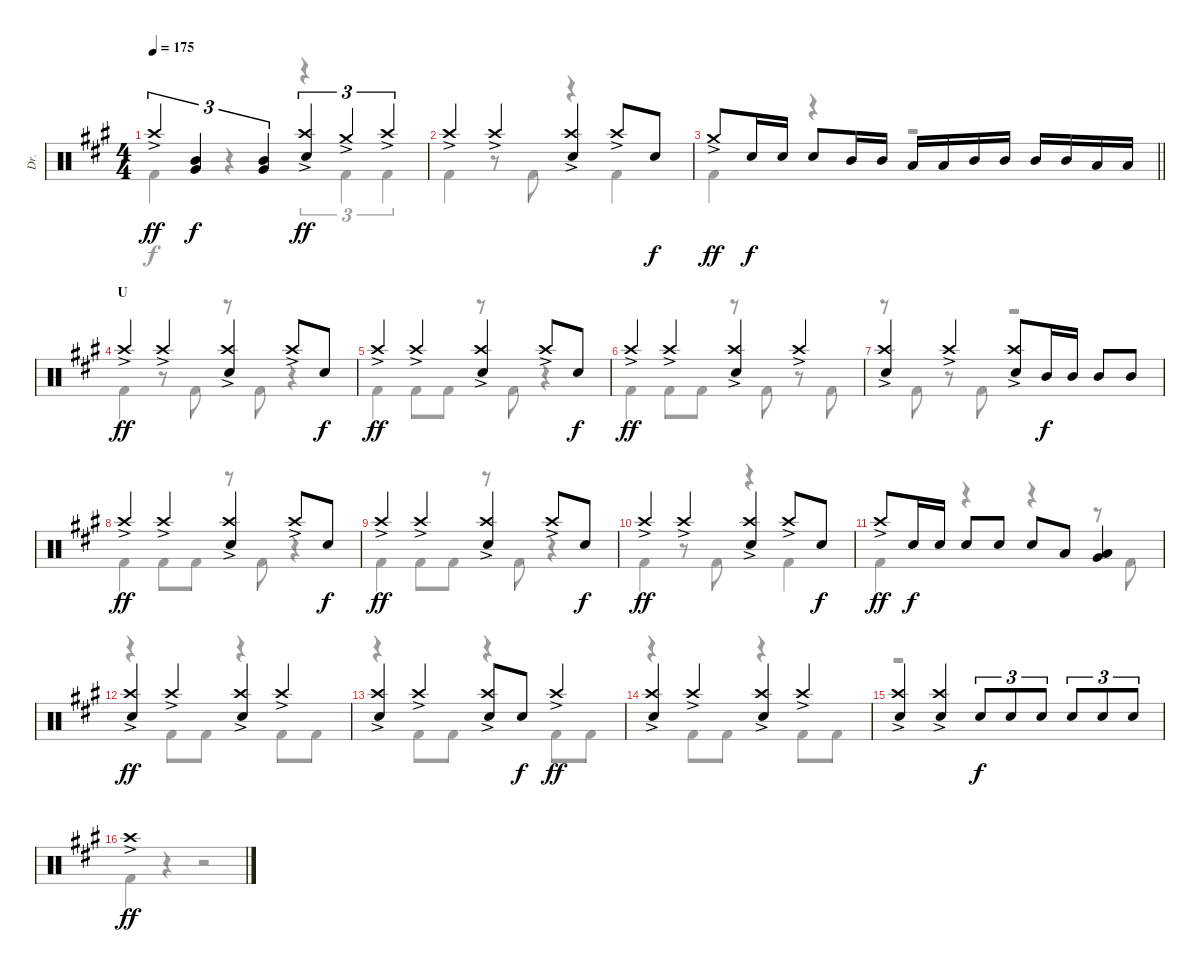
\track ("Dr." "Dr.") {instrument percussion}
\staff {score}
\articulation defaults
\voice
\ts (4 4)
\tempo 175
\clef neutral
\ks f#minor "Crash high (hit)"{ac}.4{tu (3 2) dy ff}
("Mid Tom (hit)" "Very Low Tom (hit)").4{tu (3 2) dy f} ("Mid Tom (hit)" "Very Low Tom (hit)").4{tu (3 2)} ("Crash high (hit)"{ac} "Electric Snare (hit)").4{tu (3 2) dy ff} "Crash medium (hit)"{ac}.4{tu (3 2)} "Crash high (hit)"{ac}.4{tu (3 2)} |
"Crash high (hit)"{ac}.4 "Crash high (hit)"{ac}.4 ("Crash high (hit)"{ac} "Electric Snare (hit)").4 "Crash high (hit)"{ac}.8 "Electric Snare (hit)".8{dy f} |
\barLineRight lightlight "Crash medium (hit)"{ac}.8{dy ff} "Electric Snare (hit)".16{dy f} "Electric Snare (hit)".16 "Electric Snare (hit)".8 "Mid Tom (hit)".16 "Mid Tom (hit)".16 "Low Tom (hit)".16 "Low Tom (hit)".16 "Mid Tom (hit)".16 "Mid Tom (hit)".16 "Mid Tom (hit)".16 "Mid Tom (hit)".16 "Low Tom (hit)".16 "Low Tom (hit)".16
|
\section ("" "U")
"Crash high (hit)"{ac}.4{dy ff} "Crash high (hit)"{ac}.4 ("Crash high (hit)"{ac} "Electric Snare (hit)").4 "Crash high (hit)"{ac}.8 "Electric Snare (hit)".8{dy f} |
"Crash high (hit)"{ac}.4{dy ff} "Crash high (hit)"{ac}.4 ("Crash high (hit)"{ac} "Electric Snare (hit)").4 "Crash high (hit)"{ac}.8 "Electric Snare (hit)".8{dy f} |
"Crash high (hit)"{ac}.4{dy ff} "Crash high (hit)"{ac}.4 ("Crash high (hit)"{ac} "Electric Snare (hit)").4 "Crash high (hit)"{ac}.4 |
("Crash high (hit)"{ac} "Electric Snare (hit)").4 "Crash high (hit)"{ac}.4 ("Crash high (hit)"{ac} "Electric Snare (hit)").8 "Mid Tom (hit)".16{dy f} "Mid Tom (hit)".16 "Mid Tom (hit)".8 "Mid Tom (hit)".8 |
"Crash high (hit)"{ac}.4{dy ff} "Crash high (hit)"{ac}.4 ("Crash high (hit)"{ac} "Electric Snare (hit)").4 "Crash high (hit)"{ac}.8 "Electric Snare (hit)".8{dy f} |
"Crash high (hit)"{ac}.4{dy ff} "Crash high (hit)"{ac}.4 ("Crash high (hit)"{ac} "Electric Snare (hit)").4 "Crash high (hit)"{ac}.8 "Electric Snare (hit)".8{dy f} |
"Crash high (hit)"{ac}.4{dy ff} "Crash high (hit)"{ac}.4 ("Crash high (hit)"{ac} "Electric Snare (hit)").4 "Crash high (hit)"{ac}.8 "Electric Snare (hit)".8{dy f} |
"Crash high (hit)"{ac}.8{dy ff} "Electric Snare (hit)".16{dy f} "Electric Snare (hit)".16 "Electric Snare (hit)".8 "Electric Snare (hit)".8 "Electric Snare (hit)".8 "Low Tom (hit)".8 ("Low Tom (hit)" "Very Low Tom (hit)").4 |
("Crash high (hit)"{ac} "Electric Snare (hit)").4{dy ff} "Crash high (hit)"{ac}.4 ("Crash high (hit)"{ac} "Electric Snare (hit)").4 "Crash high (hit)"{ac}.4 |
("Crash high (hit)"{ac} "Electric Snare (hit)").4 "Crash high (hit)"{ac}.4 ("Crash high (hit)"{ac} "Electric Snare (hit)").8 "Electric Snare (hit)".8{dy f} "Crash high (hit)"{ac}.4{dy ff} |
("Crash high (hit)"{ac} "Electric Snare (hit)").4 "Crash high (hit)"{ac}.4 ("Crash high (hit)"{ac} "Electric Snare (hit)").4 "Crash high (hit)"{ac}.4 |
("Crash high (hit)"{ac} "Electric Snare (hit)").4 ("Crash high (hit)"{ac} "Electric Snare (hit)").4 "Electric Snare (hit)".8{tu (3 2) dy f} "Electric Snare (hit)".8{tu (3 2)} "Electric Snare (hit)".8{tu (3 2)} "Electric Snare (hit)".8{tu (3 2)} "Electric Snare (hit)".8{tu (3 2)} "Electric Snare (hit)".8{tu (3 2)} |
"Crash high (hit)"{ac}.1{dy ff}
\voice
\clef neutral
\ottava regular
\simile none
\ks f#minor "Kick (hit) 2".4{dy f}
r.4 r.4{tu (3 2)} "Kick (hit) 2".4{tu (3 2)} "Kick (hit) 2".4{tu (3 2)} |
"Kick (hit) 2".4 r.8 "Kick (hit) 2".8 r.4 "Kick (hit) 2".4 |
\barLineRight lightlight "Kick (hit) 2".4
r.4 r.2 |
"Kick (hit) 2".4 r.8 "Kick (hit) 2".8 r.8 "Kick (hit) 2".8 r.4 |
"Kick (hit) 2".4 "Kick (hit) 2".8 "Kick (hit) 2".8 r.8 "Kick (hit) 2".8 r.4 |
"Kick (hit) 2".4 "Kick (hit) 2".8 "Kick (hit) 2".8 r.8 "Kick (hit) 2".8 r.8 "Kick (hit) 2".8 |
r.8 "Kick (hit) 2".8 r.8 "Kick (hit) 2".8 r.2 |
"Kick (hit) 2".4 "Kick (hit) 2".8 "Kick (hit) 2".8 r.8 "Kick (hit) 2".8 r.4 |
"Kick (hit) 2".4 "Kick (hit) 2".8 "Kick (hit) 2".8 r.8 "Kick (hit) 2".8 r.4 |
"Kick (hit) 2".4 r.8 "Kick (hit) 2".8 r.4 "Kick (hit) 2".4 |
"Kick (hit) 2".4 r.4 r.4 r.8 "Kick (hit) 2".8 |
r.4 "Kick (hit) 2".8 "Kick (hit) 2".8 r.4 "Kick (hit) 2".8 "Kick (hit) 2".8 |
r.4 "Kick (hit) 2".8 "Kick (hit) 2".8 r.4 "Kick (hit) 2".8 "Kick (hit) 2".8 |
r.4 "Kick (hit) 2".8 "Kick (hit) 2".8 r.4 "Kick (hit) 2".8 "Kick (hit) 2".8 |
r.1 |
"Kick (hit) 2".4 r.4 r.2
